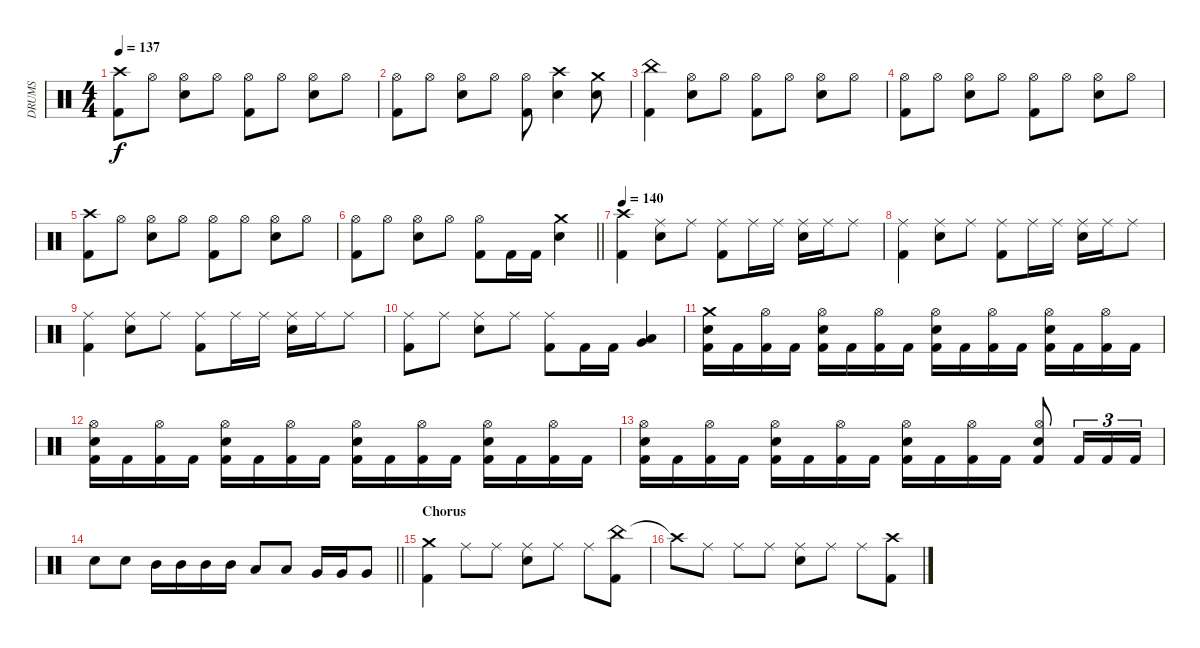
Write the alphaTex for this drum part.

\track ("DRUMS" "DRUMS") {instrument percussion}
\staff {score}
\articulation defaults
\ts (4 4)
\tempo 137
\clef neutral
\ks c
("Crash high (hit)" "Kick (hit) 2").8{dy f} "Hi-Hat (open)".8 ("Hi-Hat (open)" "Snare (hit) 2").8 "Hi-Hat (open)".8 ("Hi-Hat (open)" "Kick (hit) 2").8 "Hi-Hat (open)".8 ("Hi-Hat (open)" "Snare (hit) 2").8 "Hi-Hat (open)".8 |
("Hi-Hat (open)" "Kick (hit) 2").8 "Hi-Hat (open)".8 ("Hi-Hat (open)" "Snare (hit) 2").8 "Hi-Hat (open)".8 ("Hi-Hat (open)" "Kick (hit) 2").8 ("Crash high (hit)" "Snare (hit) 2").4 ("Crash medium (hit)" "Snare (hit) 2").8 |
("China (hit)" "Kick (hit) 2").4 ("Hi-Hat (open)" "Snare (hit) 2").8 "Hi-Hat (open)".8 ("Hi-Hat (open)" "Kick (hit) 2").8 "Hi-Hat (open)".8 ("Hi-Hat (open)" "Snare (hit) 2").8 "Hi-Hat (open)".8 |
("Hi-Hat (open)" "Kick (hit) 2").8 "Hi-Hat (open)".8 ("Hi-Hat (open)" "Snare (hit) 2").8 "Hi-Hat (open)".8 ("Hi-Hat (open)" "Kick (hit) 2").8 "Hi-Hat (open)".8 ("Hi-Hat (open)" "Snare (hit) 2").8 "Hi-Hat (open)".8 |
("Crash high (hit)" "Kick (hit) 2").8 "Hi-Hat (open)".8 ("Hi-Hat (open)" "Snare (hit) 2").8 "Hi-Hat (open)".8 ("Hi-Hat (open)" "Kick (hit) 2").8 "Hi-Hat (open)".8 ("Hi-Hat (open)" "Snare (hit) 2").8 "Hi-Hat (open)".8 |
\barLineRight lightlight
("Hi-Hat (open)" "Kick (hit) 2").8 "Hi-Hat (open)".8 ("Hi-Hat (open)" "Snare (hit) 2").8 "Hi-Hat (open)".8 ("Hi-Hat (open)" "Kick (hit) 2").8 "Kick (hit) 2".16 "Kick (hit) 2".16 ("Crash medium (hit)" "Snare (hit) 2").4 |
\tempo 140
("Crash high (hit)" "Kick (hit) 2").4 ("Ride (middle)" "Snare (hit) 2").8 "Ride (middle)".8 ("Ride (middle)" "Kick (hit) 2").8 "Ride (middle)".16 "Ride (middle)".16 ("Ride (middle)" "Snare (hit) 2").16 "Ride (middle)".16 "Ride (middle)".8 |
("Ride (middle)" "Kick (hit) 2").4 ("Ride (middle)" "Snare (hit) 2").8 "Ride (middle)".8 ("Ride (middle)" "Kick (hit) 2").8 "Ride (middle)".16 "Ride (middle)".16 ("Ride (middle)" "Snare (hit) 2").16 "Ride (middle)".16 "Ride (middle)".8 |
("Ride (middle)" "Kick (hit) 2").4 ("Ride (middle)" "Snare (hit) 2").8 "Ride (middle)".8 ("Ride (middle)" "Kick (hit) 2").8 "Ride (middle)".16 "Ride (middle)".16 ("Ride (middle)" "Snare (hit) 2").16 "Ride (middle)".16 "Ride (middle)".8 |
("Ride (middle)" "Kick (hit) 2").8 "Ride (middle)".8 ("Ride (middle)" "Snare (hit) 2").8 "Ride (middle)".8 ("Ride (middle)" "Kick (hit) 2").8 "Kick (hit) 2".16 "Kick (hit) 2".16 ("Low Tom (hit)" "Very Low Tom (hit)").4 |
("Crash medium (hit)" "Snare (hit) 2" "Kick (hit) 2").16 "Kick (hit) 2".16 ("Hi-Hat (open)" "Kick (hit) 2").16 "Kick (hit) 2".16 ("Hi-Hat (open)" "Snare (hit) 2" "Kick (hit) 2").16 "Kick (hit) 2".16 ("Hi-Hat (open)" "Kick (hit) 2").16 "Kick (hit) 2".16 ("Hi-Hat (open)" "Snare (hit) 2" "Kick (hit) 2").16 "Kick (hit) 2".16 ("Hi-Hat (open)" "Kick (hit) 2").16 "Kick (hit) 2".16 ("Hi-Hat (open)" "Snare (hit) 2" "Kick (hit) 2").16 "Kick (hit) 2".16 ("Hi-Hat (open)" "Kick (hit) 2").16 "Kick (hit) 2".16 |
("Hi-Hat (open)" "Snare (hit) 2" "Kick (hit) 2").16 "Kick (hit) 2".16 ("Hi-Hat (open)" "Kick (hit) 2").16 "Kick (hit) 2".16 ("Hi-Hat (open)" "Snare (hit) 2" "Kick (hit) 2").16 "Kick (hit) 2".16 ("Hi-Hat (open)" "Kick (hit) 2").16 "Kick (hit) 2".16 ("Hi-Hat (open)" "Snare (hit) 2" "Kick (hit) 2").16 "Kick (hit) 2".16 ("Hi-Hat (open)" "Kick (hit) 2").16 "Kick (hit) 2".16 ("Hi-Hat (open)" "Snare (hit) 2" "Kick (hit) 2").16 "Kick (hit) 2".16 ("Hi-Hat (open)" "Kick (hit) 2").16 "Kick (hit) 2".16 |
("Hi-Hat (open)" "Snare (hit) 2" "Kick (hit) 2").16 "Kick (hit) 2".16 ("Hi-Hat (open)" "Kick (hit) 2").16 "Kick (hit) 2".16 ("Hi-Hat (open)" "Snare (hit) 2" "Kick (hit) 2").16 "Kick (hit) 2".16 ("Hi-Hat (open)" "Kick (hit) 2").16 "Kick (hit) 2".16 ("Hi-Hat (open)" "Snare (hit) 2" "Kick (hit) 2").16 "Kick (hit) 2".16 ("Hi-Hat (open)" "Kick (hit) 2").16 "Kick (hit) 2".16 ("Hi-Hat (open)" "Snare (hit) 2" "Kick (hit) 2").8 "Kick (hit) 2".16{tu (3 2)} "Kick (hit) 2".16{tu (3 2)} "Kick (hit) 2".16{tu (3 2)} |
\barLineRight lightlight "Snare (hit) 2".8 "Snare (hit) 2".8 "Mid Tom (hit)".16 "Mid Tom (hit)".16 "Mid Tom (hit)".16 "Mid Tom (hit)".16 "Low Tom (hit)".8 "Low Tom (hit)".8 "Very Low Tom (hit)".16 "Very Low Tom (hit)".16 "Very Low Tom (hit)".8
|
\section ("" "Chorus")
("Crash medium (hit)" "Kick (hit) 2").4 "Ride (middle)".8 "Ride (middle)".8 ("Ride (middle)" "Snare (hit) 2").8 "Ride (middle)".8 "Ride (middle)".8 ("China (hit)" "Kick (hit) 2").8 |
"Crash high (hit)"{t}.8 "Ride (middle)".8 "Ride (middle)".8 "Ride (middle)".8 ("Ride (middle)" "Snare (hit) 2").8 "Ride (middle)".8 "Ride (middle)".8 ("Crash high (hit)" "Kick (hit) 2").8
